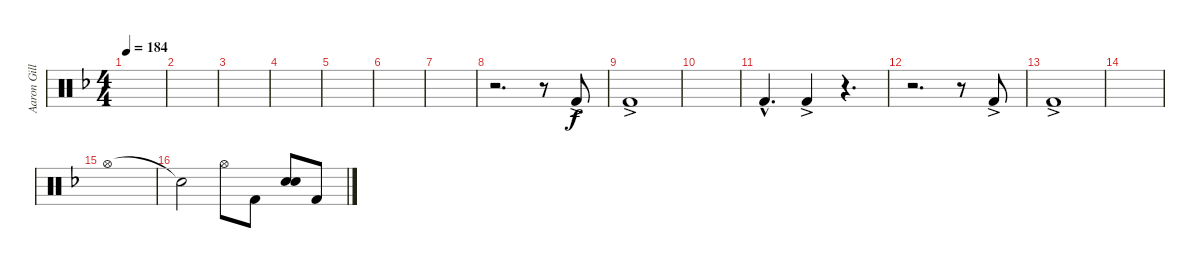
\track ("Aaron Gillespie" "Aaron Gill") {instrument percussion}
\staff {score}
\articulation defaults
\ts (4 4)
\tempo 184
\clef neutral
\ks dminor
|
|
|
|
|
|
|
r.2{d} r.8 "Kick (hit) 2"{ac}.8 |
"Kick (hit) 2"{ac}.1 |
|
"Kick (hit) 2"{hac}.4{d} "Kick (hit) 2"{ac}.4 r.4{d} |
r.2{d} r.8 "Kick (hit) 2"{ac}.8 |
"Kick (hit) 2"{ac}.1 |
|
"Hi-Hat (open)".1{dy f} |
"Snare (hit)"{t}.2 "Hi-Hat (open)".8 "Kick (hit) 2".8 ("Snare (hit) 2" "Snare (hit) 2").8 "Kick (hit) 2".8
